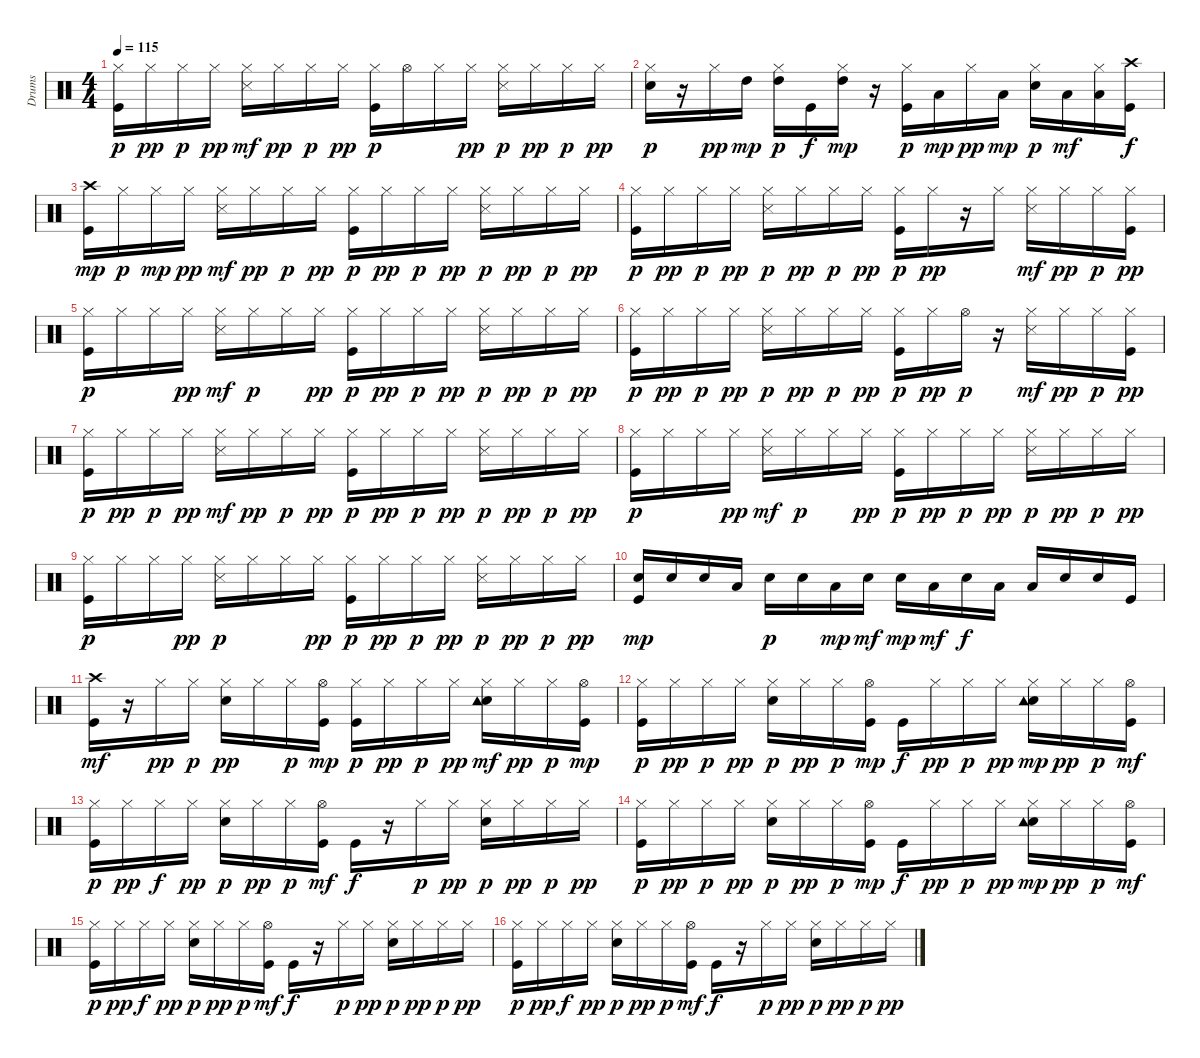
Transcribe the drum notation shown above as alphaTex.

\track ("Drums  " "Drums  ") {instrument percussion}
\staff {score}
\articulation defaults
\ts (4 4)
\tempo 115
\clef neutral
\ks c
("Kick (hit)" "Hi-Hat (closed)").16{dy p} "Hi-Hat (closed)".16{dy pp} "Hi-Hat (closed)".16{dy p} "Hi-Hat (closed)".16{dy pp} ("Hi-Hat (closed)" "Snare (side stick) 3").16{dy mf} "Hi-Hat (closed)".16{dy pp} "Hi-Hat (closed)".16{dy p} "Hi-Hat (closed)".16{dy pp} ("Kick (hit)" "Hi-Hat (closed)").16{dy p} "Hi-Hat (open)".16 "Hi-Hat (closed)".16 "Hi-Hat (closed)".16{dy pp} ("Hi-Hat (closed)" "Snare (side stick) 3").16{dy p} "Hi-Hat (closed)".16{dy pp} "Hi-Hat (closed)".16{dy p} "Hi-Hat (closed)".16{dy pp} |
("Snare (hit) 2" "Hi-Hat (closed)").16{dy p} r.16 "Hi-Hat (closed)".16{dy pp} "High Tom (hit)".16{dy mp} ("Hi-Hat (closed)" "High Tom (hit)").16{dy p} "Kick (hit)".16{dy f} ("Hi-Hat (closed)" "High Tom (hit)").16{dy mp} r.16 ("Kick (hit)" "Hi-Hat (closed)").16{dy p} "Low Tom (hit)".16{dy mp} "Hi-Hat (closed)".16{dy pp} "Low Floor Tom (hit)".16{dy mp} ("Snare (hit) 2" "Hi-Hat (closed)").16{dy p} "Low Floor Tom (hit)".16{dy mf} ("Hi-Hat (closed)" "Low Floor Tom (hit)").16 ("Kick (hit)" "Crash high (hit)").16{dy f} |
("Kick (hit)" "Crash high (hit)").16{dy mp} "Hi-Hat (closed)".16{dy p} "Hi-Hat (closed)".16{dy mp} "Hi-Hat (closed)".16{dy pp} ("Hi-Hat (closed)" "Snare (side stick) 3").16{dy mf} "Hi-Hat (closed)".16{dy pp} "Hi-Hat (closed)".16{dy p} "Hi-Hat (closed)".16{dy pp} ("Kick (hit)" "Hi-Hat (closed)").16{dy p} "Hi-Hat (closed)".16{dy pp} "Hi-Hat (closed)".16{dy p} "Hi-Hat (closed)".16{dy pp} ("Hi-Hat (closed)" "Snare (side stick) 3").16{dy p} "Hi-Hat (closed)".16{dy pp} "Hi-Hat (closed)".16{dy p} "Hi-Hat (closed)".16{dy pp} |
("Kick (hit)" "Hi-Hat (closed)").16{dy p} "Hi-Hat (closed)".16{dy pp} "Hi-Hat (closed)".16{dy p} "Hi-Hat (closed)".16{dy pp} ("Hi-Hat (closed)" "Snare (side stick) 3").16{dy p} "Hi-Hat (closed)".16{dy pp} "Hi-Hat (closed)".16{dy p} "Hi-Hat (closed)".16{dy pp} ("Kick (hit)" "Hi-Hat (closed)").16{dy p} "Hi-Hat (closed)".16{dy pp} r.16 "Hi-Hat (closed)".16 ("Hi-Hat (closed)" "Snare (side stick) 3").16{dy mf} "Hi-Hat (closed)".16{dy pp} "Hi-Hat (closed)".16{dy p} ("Kick (hit)" "Hi-Hat (closed)").16{dy pp} |
("Kick (hit)" "Hi-Hat (closed)").16{dy p} "Hi-Hat (closed)".16 "Hi-Hat (closed)".16 "Hi-Hat (closed)".16{dy pp} ("Hi-Hat (closed)" "Snare (side stick) 3").16{dy mf} "Hi-Hat (closed)".16{dy p} "Hi-Hat (closed)".16 "Hi-Hat (closed)".16{dy pp} ("Kick (hit)" "Hi-Hat (closed)").16{dy p} "Hi-Hat (closed)".16{dy pp} "Hi-Hat (closed)".16{dy p} "Hi-Hat (closed)".16{dy pp} ("Hi-Hat (closed)" "Snare (side stick) 3").16{dy p} "Hi-Hat (closed)".16{dy pp} "Hi-Hat (closed)".16{dy p} "Hi-Hat (closed)".16{dy pp} |
("Kick (hit)" "Hi-Hat (closed)").16{dy p} "Hi-Hat (closed)".16{dy pp} "Hi-Hat (closed)".16{dy p} "Hi-Hat (closed)".16{dy pp} ("Hi-Hat (closed)" "Snare (side stick) 3").16{dy p} "Hi-Hat (closed)".16{dy pp} "Hi-Hat (closed)".16{dy p} "Hi-Hat (closed)".16{dy pp} ("Kick (hit)" "Hi-Hat (closed)").16{dy p} "Hi-Hat (closed)".16{dy pp} "Hi-Hat (open)".16{dy p} r.16 ("Hi-Hat (closed)" "Snare (side stick) 3").16{dy mf} "Hi-Hat (closed)".16{dy pp} "Hi-Hat (closed)".16{dy p} ("Kick (hit)" "Hi-Hat (closed)").16{dy pp} |
("Kick (hit)" "Hi-Hat (closed)").16{dy p} "Hi-Hat (closed)".16{dy pp} "Hi-Hat (closed)".16{dy p} "Hi-Hat (closed)".16{dy pp} ("Hi-Hat (closed)" "Snare (side stick) 3").16{dy mf} "Hi-Hat (closed)".16{dy pp} "Hi-Hat (closed)".16{dy p} "Hi-Hat (closed)".16{dy pp} ("Kick (hit)" "Hi-Hat (closed)").16{dy p} "Hi-Hat (closed)".16{dy pp} "Hi-Hat (closed)".16{dy p} "Hi-Hat (closed)".16{dy pp} ("Hi-Hat (closed)" "Snare (side stick) 3").16{dy p} "Hi-Hat (closed)".16{dy pp} "Hi-Hat (closed)".16{dy p} "Hi-Hat (closed)".16{dy pp} |
("Kick (hit)" "Hi-Hat (closed)").16{dy p} "Hi-Hat (closed)".16 "Hi-Hat (closed)".16 "Hi-Hat (closed)".16{dy pp} ("Hi-Hat (closed)" "Snare (side stick) 3").16{dy mf} "Hi-Hat (closed)".16{dy p} "Hi-Hat (closed)".16 "Hi-Hat (closed)".16{dy pp} ("Kick (hit)" "Hi-Hat (closed)").16{dy p} "Hi-Hat (closed)".16{dy pp} "Hi-Hat (closed)".16{dy p} "Hi-Hat (closed)".16{dy pp} ("Hi-Hat (closed)" "Snare (side stick) 3").16{dy p} "Hi-Hat (closed)".16{dy pp} "Hi-Hat (closed)".16{dy p} "Hi-Hat (closed)".16{dy pp} |
("Kick (hit)" "Hi-Hat (closed)").16{dy p} "Hi-Hat (closed)".16 "Hi-Hat (closed)".16 "Hi-Hat (closed)".16{dy pp} ("Hi-Hat (closed)" "Snare (side stick) 3").16{dy p} "Hi-Hat (closed)".16 "Hi-Hat (closed)".16 "Hi-Hat (closed)".16{dy pp} ("Kick (hit)" "Hi-Hat (closed)").16{dy p} "Hi-Hat (closed)".16{dy pp} "Hi-Hat (closed)".16{dy p} "Hi-Hat (closed)".16{dy pp} ("Hi-Hat (closed)" "Snare (side stick) 3").16{dy p} "Hi-Hat (closed)".16{dy pp} "Hi-Hat (closed)".16{dy p} "Hi-Hat (closed)".16{dy pp} |
("Kick (hit)" "Snare (hit) 2").16{dy mp} "Snare (hit) 2".16 "Snare (hit) 2".16 "Low Tom (hit)".16 "Snare (hit) 2".16{dy p} "Snare (hit) 2".16 "Low Floor Tom (hit)".16{dy mp} "Snare (hit) 2".16{dy mf} "Snare (hit) 2".16{dy mp} "Low Floor Tom (hit)".16{dy mf} "Snare (hit) 2".16{dy f} "Low Floor Tom (hit)".16 "Low Floor Tom (hit)".16 "Snare (hit) 2".16 "Snare (hit) 2".16 "Kick (hit)".16 |
("Kick (hit)" "Crash high (hit)").16{dy mf} r.16 "Hi-Hat (closed)".16{dy pp} "Hi-Hat (closed)".16{dy p} ("Snare (hit) 2" "Hi-Hat (closed)").16{dy pp} "Hi-Hat (closed)".16 "Hi-Hat (closed)".16{dy p} ("Kick (hit)" "Hi-Hat (open)").16{dy mp} ("Kick (hit)" "Hi-Hat (closed)").16{dy p} "Hi-Hat (closed)".16{dy pp} "Hi-Hat (closed)".16{dy p} "Hi-Hat (closed)".16{dy pp} ("Snare (hit) 2" "Hi-Hat (closed)" "Tambourine (hit)").16{dy mf} "Hi-Hat (closed)".16{dy pp} "Hi-Hat (closed)".16{dy p} ("Kick (hit)" "Hi-Hat (open)").16{dy mp} |
("Kick (hit)" "Hi-Hat (closed)").16{dy p} "Hi-Hat (closed)".16{dy pp} "Hi-Hat (closed)".16{dy p} "Hi-Hat (closed)".16{dy pp} ("Snare (hit) 2" "Hi-Hat (closed)").16{dy p} "Hi-Hat (closed)".16{dy pp} "Hi-Hat (closed)".16{dy p} ("Kick (hit)" "Hi-Hat (open)").16{dy mp} "Kick (hit)".16{dy f} "Hi-Hat (closed)".16{dy pp} "Hi-Hat (closed)".16{dy p} "Hi-Hat (closed)".16{dy pp} ("Snare (hit) 2" "Hi-Hat (closed)" "Tambourine (hit)").16{dy mp} "Hi-Hat (closed)".16{dy pp} "Hi-Hat (closed)".16{dy p} ("Kick (hit)" "Hi-Hat (open)").16{dy mf} |
("Kick (hit)" "Hi-Hat (closed)").16{dy p} "Hi-Hat (closed)".16{dy pp} "Hi-Hat (closed)".16{dy f} "Hi-Hat (closed)".16{dy pp} ("Snare (hit) 2" "Hi-Hat (closed)").16{dy p} "Hi-Hat (closed)".16{dy pp} "Hi-Hat (closed)".16{dy p} ("Kick (hit)" "Hi-Hat (open)").16{dy mf} "Kick (hit)".16{dy f} r.16 "Hi-Hat (closed)".16{dy p} "Hi-Hat (closed)".16{dy pp} ("Snare (hit) 2" "Hi-Hat (closed)").16{dy p} "Hi-Hat (closed)".16{dy pp} "Hi-Hat (closed)".16{dy p} "Hi-Hat (closed)".16{dy pp} |
("Kick (hit)" "Hi-Hat (closed)").16{dy p} "Hi-Hat (closed)".16{dy pp} "Hi-Hat (closed)".16{dy p} "Hi-Hat (closed)".16{dy pp} ("Snare (hit) 2" "Hi-Hat (closed)").16{dy p} "Hi-Hat (closed)".16{dy pp} "Hi-Hat (closed)".16{dy p} ("Kick (hit)" "Hi-Hat (open)").16{dy mp} "Kick (hit)".16{dy f} "Hi-Hat (closed)".16{dy pp} "Hi-Hat (closed)".16{dy p} "Hi-Hat (closed)".16{dy pp} ("Snare (hit) 2" "Hi-Hat (closed)" "Tambourine (hit)").16{dy mp} "Hi-Hat (closed)".16{dy pp} "Hi-Hat (closed)".16{dy p} ("Kick (hit)" "Hi-Hat (open)").16{dy mf} |
("Kick (hit)" "Hi-Hat (closed)").16{dy p} "Hi-Hat (closed)".16{dy pp} "Hi-Hat (closed)".16{dy f} "Hi-Hat (closed)".16{dy pp} ("Snare (hit) 2" "Hi-Hat (closed)").16{dy p} "Hi-Hat (closed)".16{dy pp} "Hi-Hat (closed)".16{dy p} ("Kick (hit)" "Hi-Hat (open)").16{dy mf} "Kick (hit)".16{dy f} r.16 "Hi-Hat (closed)".16{dy p} "Hi-Hat (closed)".16{dy pp} ("Snare (hit) 2" "Hi-Hat (closed)").16{dy p} "Hi-Hat (closed)".16{dy pp} "Hi-Hat (closed)".16{dy p} "Hi-Hat (closed)".16{dy pp} |
("Kick (hit)" "Hi-Hat (closed)").16{dy p} "Hi-Hat (closed)".16{dy pp} "Hi-Hat (closed)".16{dy f} "Hi-Hat (closed)".16{dy pp} ("Snare (hit) 2" "Hi-Hat (closed)").16{dy p} "Hi-Hat (closed)".16{dy pp} "Hi-Hat (closed)".16{dy p} ("Kick (hit)" "Hi-Hat (open)").16{dy mf} "Kick (hit)".16{dy f} r.16 "Hi-Hat (closed)".16{dy p} "Hi-Hat (closed)".16{dy pp} ("Snare (hit) 2" "Hi-Hat (closed)").16{dy p} "Hi-Hat (closed)".16{dy pp} "Hi-Hat (closed)".16{dy p} "Hi-Hat (closed)".16{dy pp}
